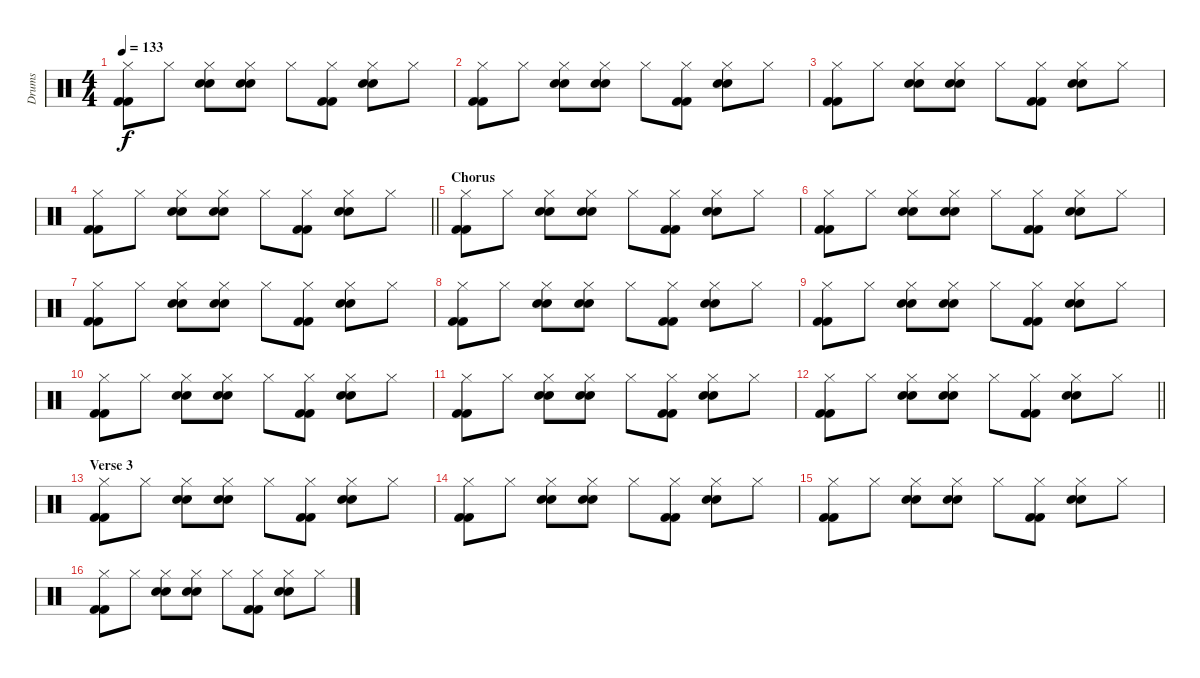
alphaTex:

\track ("Drums" "Drums") {instrument percussion}
\staff {score}
\articulation defaults
\ts (4 4)
\tempo 133
\clef neutral
\ks c
("Kick (hit) 2" "Kick (hit) 2" "Hi-Hat (closed)").8{dy f} "Hi-Hat (closed)".8 ("Snare (hit) 2" "Hi-Hat (closed)" "Electric Snare (hit)").8 ("Snare (hit) 2" "Hi-Hat (closed)" "Electric Snare (hit)").8 "Hi-Hat (closed)".8 ("Kick (hit) 2" "Kick (hit) 2" "Hi-Hat (closed)").8 ("Snare (hit) 2" "Hi-Hat (closed)" "Electric Snare (hit)").8 "Hi-Hat (closed)".8 |
("Kick (hit) 2" "Kick (hit) 2" "Hi-Hat (closed)").8 "Hi-Hat (closed)".8 ("Snare (hit) 2" "Hi-Hat (closed)" "Electric Snare (hit)").8 ("Snare (hit) 2" "Hi-Hat (closed)" "Electric Snare (hit)").8 "Hi-Hat (closed)".8 ("Kick (hit) 2" "Kick (hit) 2" "Hi-Hat (closed)").8 ("Snare (hit) 2" "Hi-Hat (closed)" "Electric Snare (hit)").8 "Hi-Hat (closed)".8 |
("Kick (hit) 2" "Kick (hit) 2" "Hi-Hat (closed)").8 "Hi-Hat (closed)".8 ("Snare (hit) 2" "Hi-Hat (closed)" "Electric Snare (hit)").8 ("Snare (hit) 2" "Hi-Hat (closed)" "Electric Snare (hit)").8 "Hi-Hat (closed)".8 ("Kick (hit) 2" "Kick (hit) 2" "Hi-Hat (closed)").8 ("Snare (hit) 2" "Hi-Hat (closed)" "Electric Snare (hit)").8 "Hi-Hat (closed)".8 |
\barLineRight lightlight
("Kick (hit) 2" "Kick (hit) 2" "Hi-Hat (closed)").8 "Hi-Hat (closed)".8 ("Snare (hit) 2" "Hi-Hat (closed)" "Electric Snare (hit)").8 ("Snare (hit) 2" "Hi-Hat (closed)" "Electric Snare (hit)").8 "Hi-Hat (closed)".8 ("Kick (hit) 2" "Kick (hit) 2" "Hi-Hat (closed)").8 ("Snare (hit) 2" "Hi-Hat (closed)" "Electric Snare (hit)").8 "Hi-Hat (closed)".8 |
\section ("" "Chorus")
("Kick (hit) 2" "Kick (hit) 2" "Hi-Hat (closed)").8 "Hi-Hat (closed)".8 ("Snare (hit) 2" "Hi-Hat (closed)" "Electric Snare (hit)").8 ("Snare (hit) 2" "Hi-Hat (closed)" "Electric Snare (hit)").8 "Hi-Hat (closed)".8 ("Kick (hit) 2" "Kick (hit) 2" "Hi-Hat (closed)").8 ("Snare (hit) 2" "Hi-Hat (closed)" "Electric Snare (hit)").8 "Hi-Hat (closed)".8 |
("Kick (hit) 2" "Kick (hit) 2" "Hi-Hat (closed)").8 "Hi-Hat (closed)".8 ("Snare (hit) 2" "Hi-Hat (closed)" "Electric Snare (hit)").8 ("Snare (hit) 2" "Hi-Hat (closed)" "Electric Snare (hit)").8 "Hi-Hat (closed)".8 ("Kick (hit) 2" "Kick (hit) 2" "Hi-Hat (closed)").8 ("Snare (hit) 2" "Hi-Hat (closed)" "Electric Snare (hit)").8 "Hi-Hat (closed)".8 |
("Kick (hit) 2" "Kick (hit) 2" "Hi-Hat (closed)").8 "Hi-Hat (closed)".8 ("Snare (hit) 2" "Hi-Hat (closed)" "Electric Snare (hit)").8 ("Snare (hit) 2" "Hi-Hat (closed)" "Electric Snare (hit)").8 "Hi-Hat (closed)".8 ("Kick (hit) 2" "Kick (hit) 2" "Hi-Hat (closed)").8 ("Snare (hit) 2" "Hi-Hat (closed)" "Electric Snare (hit)").8 "Hi-Hat (closed)".8 |
("Kick (hit) 2" "Kick (hit) 2" "Hi-Hat (closed)").8 "Hi-Hat (closed)".8 ("Snare (hit) 2" "Hi-Hat (closed)" "Electric Snare (hit)").8 ("Snare (hit) 2" "Hi-Hat (closed)" "Electric Snare (hit)").8 "Hi-Hat (closed)".8 ("Kick (hit) 2" "Kick (hit) 2" "Hi-Hat (closed)").8 ("Snare (hit) 2" "Hi-Hat (closed)" "Electric Snare (hit)").8 "Hi-Hat (closed)".8 |
("Kick (hit) 2" "Kick (hit) 2" "Hi-Hat (closed)").8 "Hi-Hat (closed)".8 ("Snare (hit) 2" "Hi-Hat (closed)" "Electric Snare (hit)").8 ("Snare (hit) 2" "Hi-Hat (closed)" "Electric Snare (hit)").8 "Hi-Hat (closed)".8 ("Kick (hit) 2" "Kick (hit) 2" "Hi-Hat (closed)").8 ("Snare (hit) 2" "Hi-Hat (closed)" "Electric Snare (hit)").8 "Hi-Hat (closed)".8 |
("Kick (hit) 2" "Kick (hit) 2" "Hi-Hat (closed)").8 "Hi-Hat (closed)".8 ("Snare (hit) 2" "Hi-Hat (closed)" "Electric Snare (hit)").8 ("Snare (hit) 2" "Hi-Hat (closed)" "Electric Snare (hit)").8 "Hi-Hat (closed)".8 ("Kick (hit) 2" "Kick (hit) 2" "Hi-Hat (closed)").8 ("Snare (hit) 2" "Hi-Hat (closed)" "Electric Snare (hit)").8 "Hi-Hat (closed)".8 |
("Kick (hit) 2" "Kick (hit) 2" "Hi-Hat (closed)").8 "Hi-Hat (closed)".8 ("Snare (hit) 2" "Hi-Hat (closed)" "Electric Snare (hit)").8 ("Snare (hit) 2" "Hi-Hat (closed)" "Electric Snare (hit)").8 "Hi-Hat (closed)".8 ("Kick (hit) 2" "Kick (hit) 2" "Hi-Hat (closed)").8 ("Snare (hit) 2" "Hi-Hat (closed)" "Electric Snare (hit)").8 "Hi-Hat (closed)".8 |
\barLineRight lightlight
("Kick (hit) 2" "Kick (hit) 2" "Hi-Hat (closed)").8 "Hi-Hat (closed)".8 ("Snare (hit) 2" "Hi-Hat (closed)" "Electric Snare (hit)").8 ("Snare (hit) 2" "Hi-Hat (closed)" "Electric Snare (hit)").8 "Hi-Hat (closed)".8 ("Kick (hit) 2" "Kick (hit) 2" "Hi-Hat (closed)").8 ("Snare (hit) 2" "Hi-Hat (closed)" "Electric Snare (hit)").8 "Hi-Hat (closed)".8 |
\section ("" "Verse 3")
("Kick (hit) 2" "Kick (hit) 2" "Hi-Hat (closed)").8 "Hi-Hat (closed)".8 ("Snare (hit) 2" "Hi-Hat (closed)" "Electric Snare (hit)").8 ("Snare (hit) 2" "Hi-Hat (closed)" "Electric Snare (hit)").8 "Hi-Hat (closed)".8 ("Kick (hit) 2" "Kick (hit) 2" "Hi-Hat (closed)").8 ("Snare (hit) 2" "Hi-Hat (closed)" "Electric Snare (hit)").8 "Hi-Hat (closed)".8 |
("Kick (hit) 2" "Kick (hit) 2" "Hi-Hat (closed)").8 "Hi-Hat (closed)".8 ("Snare (hit) 2" "Hi-Hat (closed)" "Electric Snare (hit)").8 ("Snare (hit) 2" "Hi-Hat (closed)" "Electric Snare (hit)").8 "Hi-Hat (closed)".8 ("Kick (hit) 2" "Kick (hit) 2" "Hi-Hat (closed)").8 ("Snare (hit) 2" "Hi-Hat (closed)" "Electric Snare (hit)").8 "Hi-Hat (closed)".8 |
("Kick (hit) 2" "Kick (hit) 2" "Hi-Hat (closed)").8 "Hi-Hat (closed)".8 ("Snare (hit) 2" "Hi-Hat (closed)" "Electric Snare (hit)").8 ("Snare (hit) 2" "Hi-Hat (closed)" "Electric Snare (hit)").8 "Hi-Hat (closed)".8 ("Kick (hit) 2" "Kick (hit) 2" "Hi-Hat (closed)").8 ("Snare (hit) 2" "Hi-Hat (closed)" "Electric Snare (hit)").8 "Hi-Hat (closed)".8 |
("Kick (hit) 2" "Kick (hit) 2" "Hi-Hat (closed)").8 "Hi-Hat (closed)".8 ("Snare (hit) 2" "Hi-Hat (closed)" "Electric Snare (hit)").8 ("Snare (hit) 2" "Hi-Hat (closed)" "Electric Snare (hit)").8 "Hi-Hat (closed)".8 ("Kick (hit) 2" "Kick (hit) 2" "Hi-Hat (closed)").8 ("Snare (hit) 2" "Hi-Hat (closed)" "Electric Snare (hit)").8 "Hi-Hat (closed)".8
